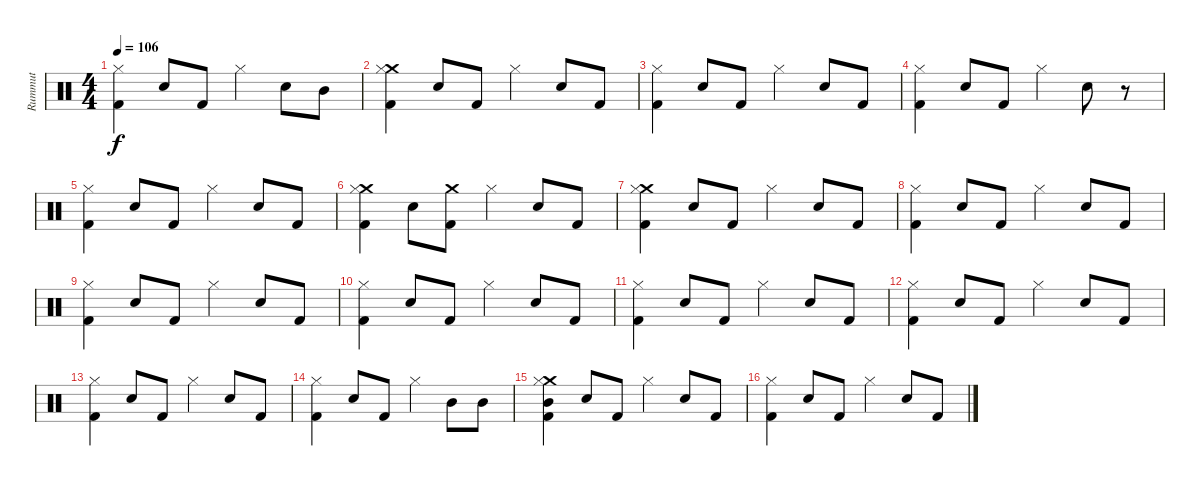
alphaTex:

\track ("Rummut" "Rummut") {instrument percussion}
\staff {score}
\articulation defaults
\ts (4 4)
\tempo 106
\clef neutral
\ks c
("Hi-Hat (closed)" "Kick (hit) 2").4{dy f} "Electric Snare (hit)".8 "Kick (hit) 2".8 "Hi-Hat (closed)".4 "Electric Snare (hit)".8 "Mid Tom (hit)".8 |
("Crash medium (hit)" "Hi-Hat (closed)" "Kick (hit) 2").4 "Electric Snare (hit)".8 "Kick (hit) 2".8 "Hi-Hat (closed)".4 "Electric Snare (hit)".8 "Kick (hit) 2".8 |
("Hi-Hat (closed)" "Kick (hit) 2").4 "Electric Snare (hit)".8 "Kick (hit) 2".8 "Hi-Hat (closed)".4 "Electric Snare (hit)".8 "Kick (hit) 2".8 |
("Hi-Hat (closed)" "Kick (hit) 2").4 "Electric Snare (hit)".8 "Kick (hit) 2".8 "Hi-Hat (closed)".4 "Electric Snare (hit)".8 r.8 |
("Hi-Hat (closed)" "Kick (hit) 2").4 "Electric Snare (hit)".8 "Kick (hit) 2".8 "Hi-Hat (closed)".4 "Electric Snare (hit)".8 "Kick (hit) 2".8 |
("Crash medium (hit)" "Hi-Hat (closed)" "Kick (hit) 2").4 "Electric Snare (hit)".8 ("Crash medium (hit)" "Kick (hit) 2").8 "Hi-Hat (closed)".4 "Electric Snare (hit)".8 "Kick (hit) 2".8 |
("Crash medium (hit)" "Hi-Hat (closed)" "Kick (hit) 2").4 "Electric Snare (hit)".8 "Kick (hit) 2".8 "Hi-Hat (closed)".4 "Electric Snare (hit)".8 "Kick (hit) 2".8 |
("Hi-Hat (closed)" "Kick (hit) 2").4 "Electric Snare (hit)".8 "Kick (hit) 2".8 "Hi-Hat (closed)".4 "Electric Snare (hit)".8 "Kick (hit) 2".8 |
("Hi-Hat (closed)" "Kick (hit) 2").4 "Electric Snare (hit)".8 "Kick (hit) 2".8 "Hi-Hat (closed)".4 "Electric Snare (hit)".8 "Kick (hit) 2".8 |
("Hi-Hat (closed)" "Kick (hit) 2").4 "Electric Snare (hit)".8 "Kick (hit) 2".8 "Hi-Hat (closed)".4 "Electric Snare (hit)".8 "Kick (hit) 2".8 |
("Hi-Hat (closed)" "Kick (hit) 2").4 "Electric Snare (hit)".8 "Kick (hit) 2".8 "Hi-Hat (closed)".4 "Electric Snare (hit)".8 "Kick (hit) 2".8 |
("Hi-Hat (closed)" "Kick (hit) 2").4 "Electric Snare (hit)".8 "Kick (hit) 2".8 "Hi-Hat (closed)".4 "Electric Snare (hit)".8 "Kick (hit) 2".8 |
("Hi-Hat (closed)" "Kick (hit) 2").4 "Electric Snare (hit)".8 "Kick (hit) 2".8 "Hi-Hat (closed)".4 "Electric Snare (hit)".8 "Kick (hit) 2".8 |
("Hi-Hat (closed)" "Kick (hit) 2").4 "Electric Snare (hit)".8 "Kick (hit) 2".8 "Hi-Hat (closed)".4 "Mid Tom (hit)".8 "Mid Tom (hit)".8 |
("Crash medium (hit)" "Hi-Hat (closed)" "Mid Tom (hit)" "Kick (hit) 2").4 "Electric Snare (hit)".8 "Kick (hit) 2".8 "Hi-Hat (closed)".4 "Electric Snare (hit)".8 "Kick (hit) 2".8 |
("Hi-Hat (closed)" "Kick (hit) 2").4 "Electric Snare (hit)".8 "Kick (hit) 2".8 "Hi-Hat (closed)".4 "Electric Snare (hit)".8 "Kick (hit) 2".8
